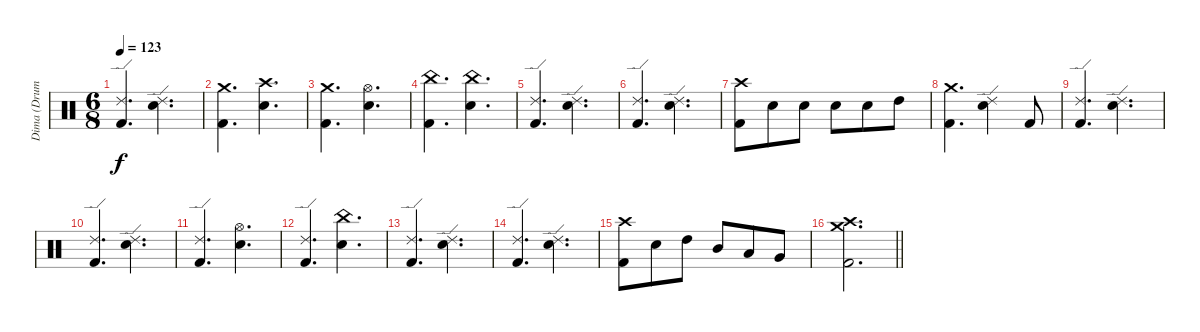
\track ("Dima (Drums)" "Dima (Drum") {instrument percussion}
\staff {score}
\articulation defaults
\ts (6 8)
\tempo 123
\clef neutral
\ks c
("Ride (edge) 2" "Kick (hit) 2").4{d dy f} ("Ride (edge) 2" "Snare (hit) 2").4{d} |
("Crash medium (hit)" "Kick (hit) 2").4{d} ("Crash high (hit)" "Snare (hit) 2").4{d} |
("Crash medium (hit)" "Kick (hit) 2").4{d} ("Hi-Hat (open)" "Snare (hit) 2").4{d} |
("China (hit)" "Kick (hit) 2").4{d} ("China (hit)" "Snare (hit) 2").4{d} |
("Ride (edge) 2" "Kick (hit) 2").4{d} ("Ride (edge) 2" "Snare (hit) 2").4{d} |
("Ride (edge) 2" "Kick (hit) 2").4{d} ("Ride (edge) 2" "Snare (hit) 2").4{d} |
("Crash high (hit)" "Kick (hit) 2").8 "Snare (hit) 2".8 "Snare (hit) 2".8 "Snare (hit) 2".8 "Snare (hit) 2".8 "High Tom (hit)".8 |
("Crash medium (hit)" "Kick (hit) 2").4{d} ("Ride (edge) 2" "Snare (hit) 2").4 "Kick (hit) 2".8 |
("Ride (edge) 2" "Kick (hit) 2").4{d} ("Ride (edge) 2" "Snare (hit) 2").4{d} |
("Ride (edge) 2" "Kick (hit) 2").4{d} ("Ride (edge) 2" "Snare (hit) 2").4{d} |
("Ride (edge) 2" "Kick (hit) 2").4{d} ("Hi-Hat (open)" "Snare (hit) 2").4{d} |
("Ride (edge) 2" "Kick (hit) 2").4{d} ("China (hit)" "Snare (hit) 2").4{d} |
("Ride (edge) 2" "Kick (hit) 2").4{d} ("Ride (edge) 2" "Snare (hit) 2").4{d} |
("Ride (edge) 2" "Kick (hit) 2").4{d} ("Ride (edge) 2" "Snare (hit) 2").4{d} |
("Crash high (hit)" "Kick (hit) 2").8 "Snare (hit) 2".8 "High Tom (hit)".8 "Mid Tom (hit)".8 "Low Tom (hit)".8 "Very Low Tom (hit)".8 |
\barLineRight lightlight
("Crash medium (hit)" "Crash high (hit)" "Kick (hit) 2").2{d}
